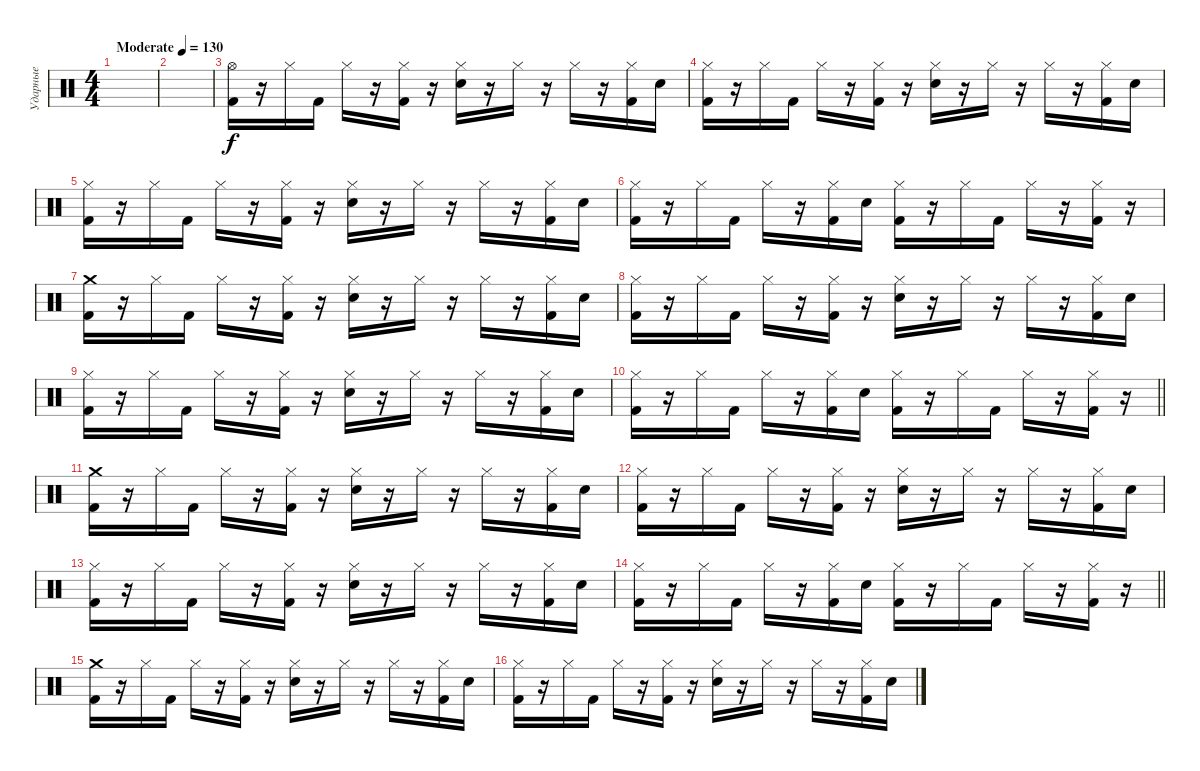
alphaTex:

\track ("Ударные" "Ударные") {instrument percussion}
\staff {score}
\articulation defaults
\ts (4 4)
\tempo (130 "Moderate")
\clef neutral
\ks c
|
|
("Hi-Hat (open)" "Kick (hit) 2").16 r.16 "Hi-Hat (closed)".16 "Kick (hit) 2".16 "Hi-Hat (closed)".16 r.16 ("Hi-Hat (closed)" "Kick (hit) 2").16 r.16 ("Hi-Hat (closed)" "Electric Snare (hit)").16 r.16 "Hi-Hat (closed)".16 r.16 "Hi-Hat (closed)".16 r.16 ("Hi-Hat (closed)" "Kick (hit) 2").16 "Electric Snare (hit)".16 |
("Hi-Hat (closed)" "Kick (hit) 2").16 r.16 "Hi-Hat (closed)".16 "Kick (hit) 2".16 "Hi-Hat (closed)".16 r.16 ("Hi-Hat (closed)" "Kick (hit) 2").16 r.16 ("Hi-Hat (closed)" "Electric Snare (hit)").16 r.16 "Hi-Hat (closed)".16 r.16 "Hi-Hat (closed)".16 r.16 ("Hi-Hat (closed)" "Kick (hit) 2").16 "Electric Snare (hit)".16 |
("Hi-Hat (closed)" "Kick (hit) 2").16 r.16 "Hi-Hat (closed)".16 "Kick (hit) 2".16 "Hi-Hat (closed)".16 r.16 ("Hi-Hat (closed)" "Kick (hit) 2").16 r.16 ("Hi-Hat (closed)" "Electric Snare (hit)").16 r.16 "Hi-Hat (closed)".16 r.16 "Hi-Hat (closed)".16 r.16 ("Hi-Hat (closed)" "Kick (hit) 2").16 "Electric Snare (hit)".16 |
("Hi-Hat (closed)" "Kick (hit) 2").16 r.16 "Hi-Hat (closed)".16 "Kick (hit) 2".16 "Hi-Hat (closed)".16 r.16 ("Hi-Hat (closed)" "Kick (hit) 2").16 "Electric Snare (hit)".16 ("Hi-Hat (closed)" "Kick (hit) 2").16 r.16 "Hi-Hat (closed)".16 "Kick (hit) 2".16 "Hi-Hat (closed)".16 r.16 ("Hi-Hat (closed)" "Kick (hit) 2").16 r.16 |
("Crash medium (hit)" "Kick (hit) 2").16 r.16 "Hi-Hat (closed)".16 "Kick (hit) 2".16 "Hi-Hat (closed)".16 r.16 ("Hi-Hat (closed)" "Kick (hit) 2").16 r.16 ("Hi-Hat (closed)" "Electric Snare (hit)").16 r.16 "Hi-Hat (closed)".16 r.16 "Hi-Hat (closed)".16 r.16 ("Hi-Hat (closed)" "Kick (hit) 2").16 "Electric Snare (hit)".16 |
("Hi-Hat (closed)" "Kick (hit) 2").16 r.16 "Hi-Hat (closed)".16 "Kick (hit) 2".16 "Hi-Hat (closed)".16 r.16 ("Hi-Hat (closed)" "Kick (hit) 2").16 r.16 ("Hi-Hat (closed)" "Electric Snare (hit)").16 r.16 "Hi-Hat (closed)".16 r.16 "Hi-Hat (closed)".16 r.16 ("Hi-Hat (closed)" "Kick (hit) 2").16 "Electric Snare (hit)".16 |
("Hi-Hat (closed)" "Kick (hit) 2").16 r.16 "Hi-Hat (closed)".16 "Kick (hit) 2".16 "Hi-Hat (closed)".16 r.16 ("Hi-Hat (closed)" "Kick (hit) 2").16 r.16 ("Hi-Hat (closed)" "Electric Snare (hit)").16 r.16 "Hi-Hat (closed)".16 r.16 "Hi-Hat (closed)".16 r.16 ("Hi-Hat (closed)" "Kick (hit) 2").16 "Electric Snare (hit)".16 |
\barLineRight lightlight
("Hi-Hat (closed)" "Kick (hit) 2").16 r.16 "Hi-Hat (closed)".16 "Kick (hit) 2".16 "Hi-Hat (closed)".16 r.16 ("Hi-Hat (closed)" "Kick (hit) 2").16 "Electric Snare (hit)".16 ("Hi-Hat (closed)" "Kick (hit) 2").16 r.16 "Hi-Hat (closed)".16 "Kick (hit) 2".16 "Hi-Hat (closed)".16 r.16 ("Hi-Hat (closed)" "Kick (hit) 2").16 r.16 |
\section ("" "")
("Crash medium (hit)" "Kick (hit) 2").16 r.16 "Hi-Hat (closed)".16 "Kick (hit) 2".16 "Hi-Hat (closed)".16 r.16 ("Hi-Hat (closed)" "Kick (hit) 2").16 r.16 ("Hi-Hat (closed)" "Electric Snare (hit)").16 r.16 "Hi-Hat (closed)".16 r.16 "Hi-Hat (closed)".16 r.16 ("Hi-Hat (closed)" "Kick (hit) 2").16 "Electric Snare (hit)".16 |
("Hi-Hat (closed)" "Kick (hit) 2").16 r.16 "Hi-Hat (closed)".16 "Kick (hit) 2".16 "Hi-Hat (closed)".16 r.16 ("Hi-Hat (closed)" "Kick (hit) 2").16 r.16 ("Hi-Hat (closed)" "Electric Snare (hit)").16 r.16 "Hi-Hat (closed)".16 r.16 "Hi-Hat (closed)".16 r.16 ("Hi-Hat (closed)" "Kick (hit) 2").16 "Electric Snare (hit)".16 |
("Hi-Hat (closed)" "Kick (hit) 2").16 r.16 "Hi-Hat (closed)".16 "Kick (hit) 2".16 "Hi-Hat (closed)".16 r.16 ("Hi-Hat (closed)" "Kick (hit) 2").16 r.16 ("Hi-Hat (closed)" "Electric Snare (hit)").16 r.16 "Hi-Hat (closed)".16 r.16 "Hi-Hat (closed)".16 r.16 ("Hi-Hat (closed)" "Kick (hit) 2").16 "Electric Snare (hit)".16 |
\barLineRight lightlight
("Hi-Hat (closed)" "Kick (hit) 2").16 r.16 "Hi-Hat (closed)".16 "Kick (hit) 2".16 "Hi-Hat (closed)".16 r.16 ("Hi-Hat (closed)" "Kick (hit) 2").16 "Electric Snare (hit)".16 ("Hi-Hat (closed)" "Kick (hit) 2").16 r.16 "Hi-Hat (closed)".16 "Kick (hit) 2".16 "Hi-Hat (closed)".16 r.16 ("Hi-Hat (closed)" "Kick (hit) 2").16 r.16 |
\section ("" "")
("Crash medium (hit)" "Kick (hit) 2").16 r.16 "Hi-Hat (closed)".16 "Kick (hit) 2".16 "Hi-Hat (closed)".16 r.16 ("Hi-Hat (closed)" "Kick (hit) 2").16 r.16 ("Hi-Hat (closed)" "Electric Snare (hit)").16 r.16 "Hi-Hat (closed)".16 r.16 "Hi-Hat (closed)".16 r.16 ("Hi-Hat (closed)" "Kick (hit) 2").16 "Electric Snare (hit)".16 |
("Hi-Hat (closed)" "Kick (hit) 2").16 r.16 "Hi-Hat (closed)".16 "Kick (hit) 2".16 "Hi-Hat (closed)".16 r.16 ("Hi-Hat (closed)" "Kick (hit) 2").16 r.16 ("Hi-Hat (closed)" "Electric Snare (hit)").16 r.16 "Hi-Hat (closed)".16 r.16 "Hi-Hat (closed)".16 r.16 ("Hi-Hat (closed)" "Kick (hit) 2").16 "Electric Snare (hit)".16
